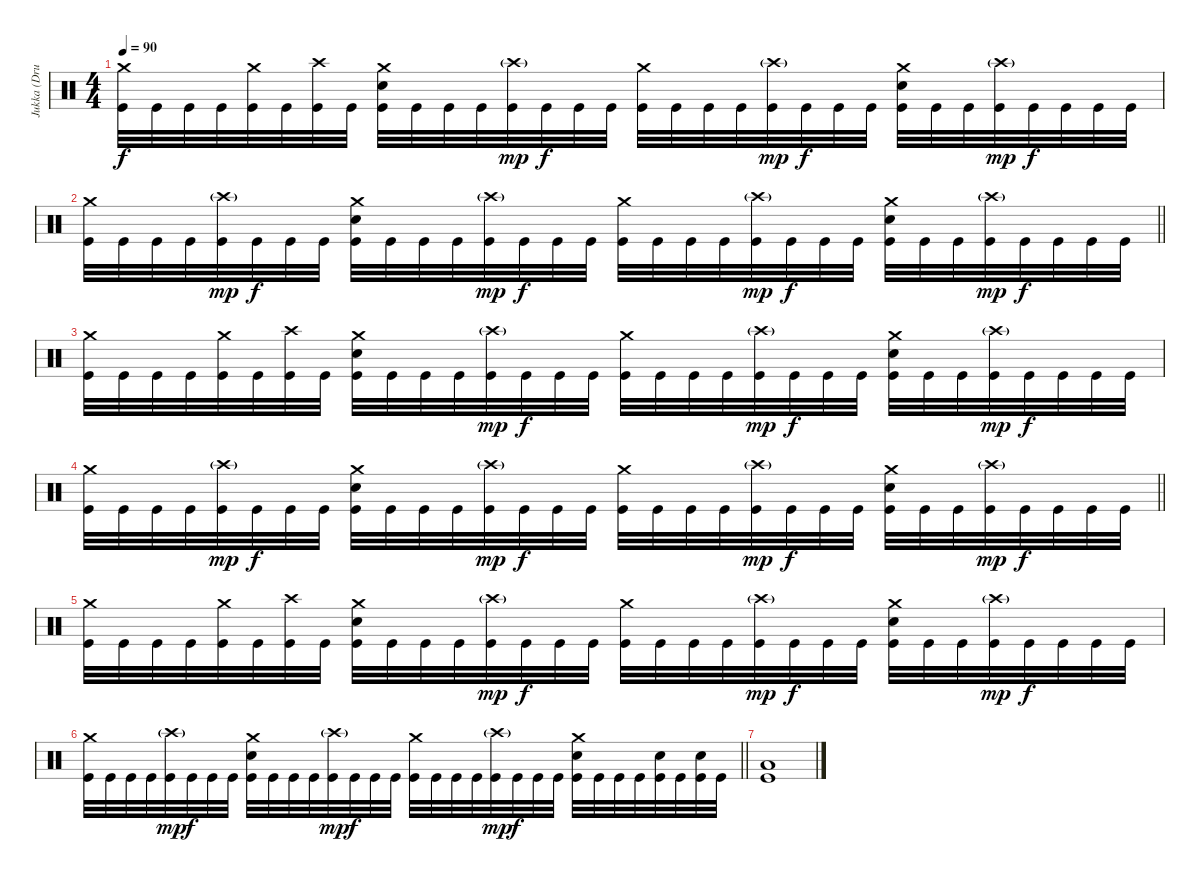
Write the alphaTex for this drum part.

\track ("Jukka (Drums)" "Jukka (Dru") {instrument percussion}
\staff {score}
\articulation defaults
\ts (4 4)
\tempo 90
\clef neutral
\ks c
("Crash medium (hit)" "Kick (hit)").32{dy f} "Kick (hit)".32 "Kick (hit)".32 "Kick (hit)".32 ("Crash medium (hit)" "Kick (hit)").32 "Kick (hit)".32 ("Crash high (hit)" "Kick (hit)").32 "Kick (hit)".32 ("Crash medium (hit)" "Snare (hit) 2" "Kick (hit)").32 "Kick (hit)".32 "Kick (hit)".32 "Kick (hit)".32 ("Crash high (hit)"{g} "Kick (hit)").32{dy mp} "Kick (hit)".32{dy f} "Kick (hit)".32 "Kick (hit)".32 ("Crash medium (hit)" "Kick (hit)").32 "Kick (hit)".32 "Kick (hit)".32 "Kick (hit)".32 ("Crash high (hit)"{g} "Kick (hit)").32{dy mp} "Kick (hit)".32{dy f} "Kick (hit)".32 "Kick (hit)".32 ("Crash medium (hit)" "Snare (hit) 2" "Kick (hit)").32 "Kick (hit)".32 "Kick (hit)".32 ("Crash high (hit)"{g} "Kick (hit)").32{dy mp} "Kick (hit)".32{dy f} "Kick (hit)".32 "Kick (hit)".32 "Kick (hit)".32 |
\barLineRight lightlight
("Crash medium (hit)" "Kick (hit)").32 "Kick (hit)".32 "Kick (hit)".32 "Kick (hit)".32 ("Crash high (hit)"{g} "Kick (hit)").32{dy mp} "Kick (hit)".32{dy f} "Kick (hit)".32 "Kick (hit)".32 ("Crash medium (hit)" "Snare (hit) 2" "Kick (hit)").32 "Kick (hit)".32 "Kick (hit)".32 "Kick (hit)".32 ("Crash high (hit)"{g} "Kick (hit)").32{dy mp} "Kick (hit)".32{dy f} "Kick (hit)".32 "Kick (hit)".32 ("Crash medium (hit)" "Kick (hit)").32 "Kick (hit)".32 "Kick (hit)".32 "Kick (hit)".32 ("Crash high (hit)"{g} "Kick (hit)").32{dy mp} "Kick (hit)".32{dy f} "Kick (hit)".32 "Kick (hit)".32 ("Crash medium (hit)" "Snare (hit) 2" "Kick (hit)").32 "Kick (hit)".32 "Kick (hit)".32 ("Crash high (hit)"{g} "Kick (hit)").32{dy mp} "Kick (hit)".32{dy f} "Kick (hit)".32 "Kick (hit)".32 "Kick (hit)".32 |
("Crash medium (hit)" "Kick (hit)").32 "Kick (hit)".32 "Kick (hit)".32 "Kick (hit)".32 ("Crash medium (hit)" "Kick (hit)").32 "Kick (hit)".32 ("Crash high (hit)" "Kick (hit)").32 "Kick (hit)".32 ("Crash medium (hit)" "Snare (hit) 2" "Kick (hit)").32 "Kick (hit)".32 "Kick (hit)".32 "Kick (hit)".32 ("Crash high (hit)"{g} "Kick (hit)").32{dy mp} "Kick (hit)".32{dy f} "Kick (hit)".32 "Kick (hit)".32 ("Crash medium (hit)" "Kick (hit)").32 "Kick (hit)".32 "Kick (hit)".32 "Kick (hit)".32 ("Crash high (hit)"{g} "Kick (hit)").32{dy mp} "Kick (hit)".32{dy f} "Kick (hit)".32 "Kick (hit)".32 ("Crash medium (hit)" "Snare (hit) 2" "Kick (hit)").32 "Kick (hit)".32 "Kick (hit)".32 ("Crash high (hit)"{g} "Kick (hit)").32{dy mp} "Kick (hit)".32{dy f} "Kick (hit)".32 "Kick (hit)".32 "Kick (hit)".32 |
\barLineRight lightlight
("Crash medium (hit)" "Kick (hit)").32 "Kick (hit)".32 "Kick (hit)".32 "Kick (hit)".32 ("Crash high (hit)"{g} "Kick (hit)").32{dy mp} "Kick (hit)".32{dy f} "Kick (hit)".32 "Kick (hit)".32 ("Crash medium (hit)" "Snare (hit) 2" "Kick (hit)").32 "Kick (hit)".32 "Kick (hit)".32 "Kick (hit)".32 ("Crash high (hit)"{g} "Kick (hit)").32{dy mp} "Kick (hit)".32{dy f} "Kick (hit)".32 "Kick (hit)".32 ("Crash medium (hit)" "Kick (hit)").32 "Kick (hit)".32 "Kick (hit)".32 "Kick (hit)".32 ("Crash high (hit)"{g} "Kick (hit)").32{dy mp} "Kick (hit)".32{dy f} "Kick (hit)".32 "Kick (hit)".32 ("Crash medium (hit)" "Snare (hit) 2" "Kick (hit)").32 "Kick (hit)".32 "Kick (hit)".32 ("Crash high (hit)"{g} "Kick (hit)").32{dy mp} "Kick (hit)".32{dy f} "Kick (hit)".32 "Kick (hit)".32 "Kick (hit)".32 |
("Crash medium (hit)" "Kick (hit)").32 "Kick (hit)".32 "Kick (hit)".32 "Kick (hit)".32 ("Crash medium (hit)" "Kick (hit)").32 "Kick (hit)".32 ("Crash high (hit)" "Kick (hit)").32 "Kick (hit)".32 ("Crash medium (hit)" "Snare (hit) 2" "Kick (hit)").32 "Kick (hit)".32 "Kick (hit)".32 "Kick (hit)".32 ("Crash high (hit)"{g} "Kick (hit)").32{dy mp} "Kick (hit)".32{dy f} "Kick (hit)".32 "Kick (hit)".32 ("Crash medium (hit)" "Kick (hit)").32 "Kick (hit)".32 "Kick (hit)".32 "Kick (hit)".32 ("Crash high (hit)"{g} "Kick (hit)").32{dy mp} "Kick (hit)".32{dy f} "Kick (hit)".32 "Kick (hit)".32 ("Crash medium (hit)" "Snare (hit) 2" "Kick (hit)").32 "Kick (hit)".32 "Kick (hit)".32 ("Crash high (hit)"{g} "Kick (hit)").32{dy mp} "Kick (hit)".32{dy f} "Kick (hit)".32 "Kick (hit)".32 "Kick (hit)".32 |
\barLineRight lightlight
("Crash medium (hit)" "Kick (hit)").32 "Kick (hit)".32 "Kick (hit)".32 "Kick (hit)".32 ("Crash high (hit)"{g} "Kick (hit)").32{dy mp} "Kick (hit)".32{dy f} "Kick (hit)".32 "Kick (hit)".32 ("Crash medium (hit)" "Snare (hit) 2" "Kick (hit)").32 "Kick (hit)".32 "Kick (hit)".32 "Kick (hit)".32 ("Crash high (hit)"{g} "Kick (hit)").32{dy mp} "Kick (hit)".32{dy f} "Kick (hit)".32 "Kick (hit)".32 ("Crash medium (hit)" "Kick (hit)").32 "Kick (hit)".32 "Kick (hit)".32 "Kick (hit)".32 ("Crash high (hit)"{g} "Kick (hit)").32{dy mp} "Kick (hit)".32{dy f} "Kick (hit)".32 "Kick (hit)".32 ("Crash medium (hit)" "Snare (hit) 2" "Kick (hit)").32 "Kick (hit)".32 "Kick (hit)".32 "Kick (hit)".32 ("Snare (hit) 2" "Kick (hit)").32 "Kick (hit)".32 ("Snare (hit) 2" "Kick (hit)").32 "Kick (hit)".32 |
("Low Floor Tom (hit)" "Kick (hit)").1
